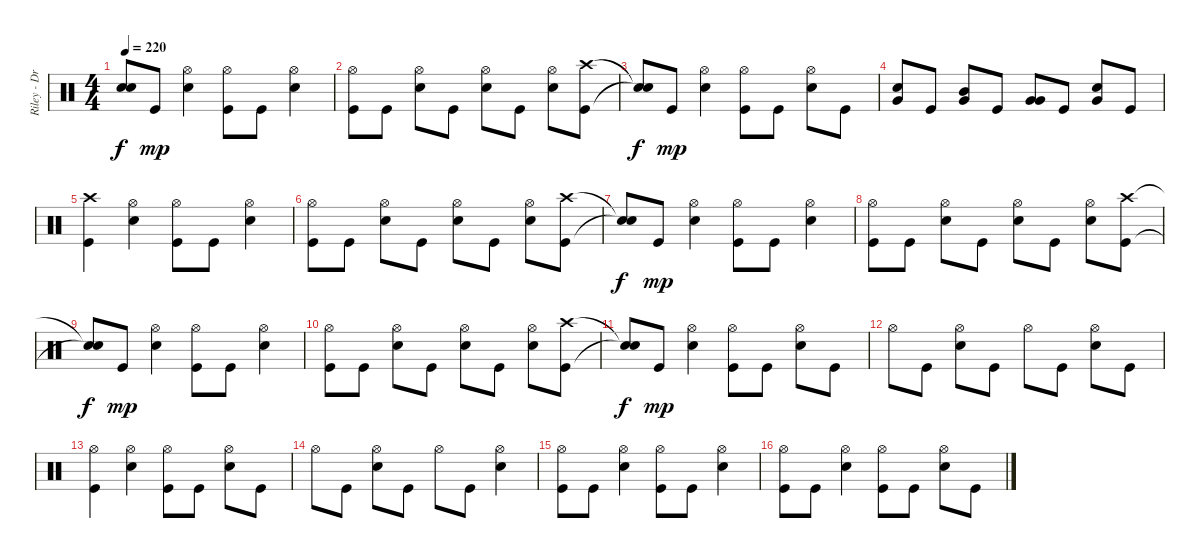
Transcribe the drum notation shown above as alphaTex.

\track ("Riley - Drums" "Riley - Dr") {instrument percussion}
\staff {score}
\articulation defaults
\ts (4 4)
\tempo 220
\clef neutral
\ks c
("Snare (hit)"{t} "Snare (hit)"{t}).8{dy f} "Kick (hit)".8{dy mp} ("Electric Snare (hit)" "Hi-Hat (open)").4 ("Kick (hit)" "Hi-Hat (open)").8 "Kick (hit)".8 ("Electric Snare (hit)" "Hi-Hat (open)").4 |
("Kick (hit)" "Hi-Hat (open)").8 "Kick (hit)".8 ("Electric Snare (hit)" "Hi-Hat (open)").8 "Kick (hit)".8 ("Electric Snare (hit)" "Hi-Hat (open)").8 "Kick (hit)".8 ("Electric Snare (hit)" "Hi-Hat (open)").8 ("Kick (hit)" "Crash high (hit)").8 |
("Snare (hit)"{t} "Snare (hit)"{t}).8{dy f} "Kick (hit)".8{dy mp} ("Electric Snare (hit)" "Hi-Hat (open)").4 ("Kick (hit)" "Hi-Hat (open)").8 "Kick (hit)".8 ("Electric Snare (hit)" "Hi-Hat (open)").8 "Kick (hit)".8 |
("Electric Snare (hit)" "Very Low Tom (hit)").8 "Kick (hit)".8 ("Mid Tom (hit)" "Very Low Tom (hit)").8 "Kick (hit)".8 ("Very Low Tom (hit)" "Very Low Tom (hit)").8 "Kick (hit)".8 ("Electric Snare (hit)" "Very Low Tom (hit)").8 "Kick (hit)".8 |
("Kick (hit)" "Crash high (hit)").4 ("Electric Snare (hit)" "Hi-Hat (open)").4 ("Kick (hit)" "Hi-Hat (open)").8 "Kick (hit)".8 ("Electric Snare (hit)" "Hi-Hat (open)").4 |
("Kick (hit)" "Hi-Hat (open)").8 "Kick (hit)".8 ("Electric Snare (hit)" "Hi-Hat (open)").8 "Kick (hit)".8 ("Electric Snare (hit)" "Hi-Hat (open)").8 "Kick (hit)".8 ("Electric Snare (hit)" "Hi-Hat (open)").8 ("Kick (hit)" "Crash high (hit)").8 |
("Snare (hit)"{t} "Snare (hit)"{t}).8{dy f} "Kick (hit)".8{dy mp} ("Electric Snare (hit)" "Hi-Hat (open)").4 ("Kick (hit)" "Hi-Hat (open)").8 "Kick (hit)".8 ("Electric Snare (hit)" "Hi-Hat (open)").4 |
("Kick (hit)" "Hi-Hat (open)").8 "Kick (hit)".8 ("Electric Snare (hit)" "Hi-Hat (open)").8 "Kick (hit)".8 ("Electric Snare (hit)" "Hi-Hat (open)").8 "Kick (hit)".8 ("Electric Snare (hit)" "Hi-Hat (open)").8 ("Kick (hit)" "Crash high (hit)").8 |
("Snare (hit)"{t} "Snare (hit)"{t}).8{dy f} "Kick (hit)".8{dy mp} ("Electric Snare (hit)" "Hi-Hat (open)").4 ("Kick (hit)" "Hi-Hat (open)").8 "Kick (hit)".8 ("Electric Snare (hit)" "Hi-Hat (open)").4 |
("Kick (hit)" "Hi-Hat (open)").8 "Kick (hit)".8 ("Electric Snare (hit)" "Hi-Hat (open)").8 "Kick (hit)".8 ("Electric Snare (hit)" "Hi-Hat (open)").8 "Kick (hit)".8 ("Electric Snare (hit)" "Hi-Hat (open)").8 ("Kick (hit)" "Crash high (hit)").8 |
("Snare (hit)"{t} "Snare (hit)"{t}).8{dy f} "Kick (hit)".8{dy mp} ("Electric Snare (hit)" "Hi-Hat (open)").4 ("Kick (hit)" "Hi-Hat (open)").8 "Kick (hit)".8 ("Electric Snare (hit)" "Hi-Hat (open)").8 "Kick (hit)".8 |
"Hi-Hat (open)".8 "Kick (hit)".8 ("Electric Snare (hit)" "Hi-Hat (open)").8 "Kick (hit)".8 "Hi-Hat (open)".8 "Kick (hit)".8 ("Electric Snare (hit)" "Hi-Hat (open)").8 "Kick (hit)".8 |
("Kick (hit)" "Hi-Hat (open)").4 ("Electric Snare (hit)" "Hi-Hat (open)").4 ("Kick (hit)" "Hi-Hat (open)").8 "Kick (hit)".8 ("Electric Snare (hit)" "Hi-Hat (open)").8 "Kick (hit)".8 |
"Hi-Hat (open)".8 "Kick (hit)".8 ("Electric Snare (hit)" "Hi-Hat (open)").8 "Kick (hit)".8 "Hi-Hat (open)".8 "Kick (hit)".8 ("Electric Snare (hit)" "Hi-Hat (open)").4 |
("Kick (hit)" "Hi-Hat (open)").8 "Kick (hit)".8 ("Electric Snare (hit)" "Hi-Hat (open)").4 ("Kick (hit)" "Hi-Hat (open)").8 "Kick (hit)".8 ("Electric Snare (hit)" "Hi-Hat (open)").4 |
("Kick (hit)" "Hi-Hat (open)").8 "Kick (hit)".8 ("Electric Snare (hit)" "Hi-Hat (open)").4 ("Kick (hit)" "Hi-Hat (open)").8 "Kick (hit)".8 ("Electric Snare (hit)" "Hi-Hat (open)").8 "Kick (hit)".8
